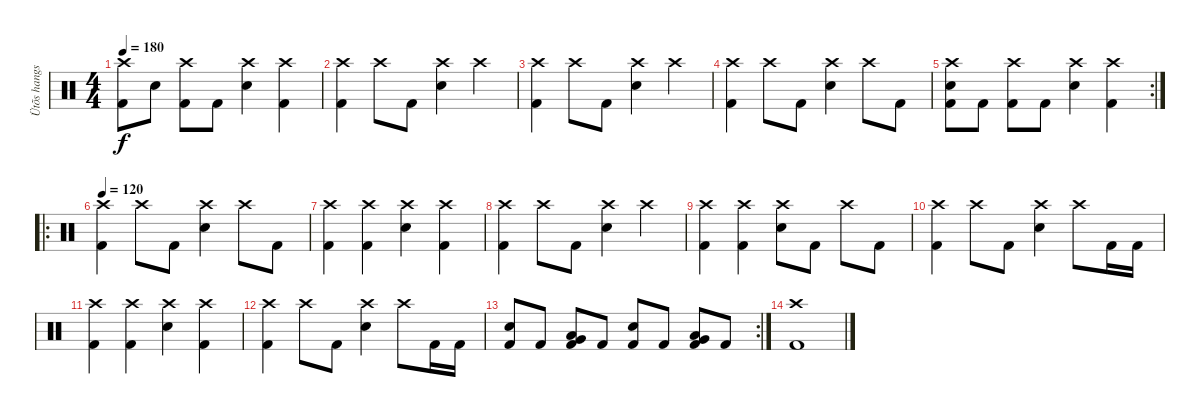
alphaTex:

\track ("Ütõs hangszer" "Ütõs hangs") {instrument percussion}
\staff {score}
\articulation defaults
\ts (4 4)
\tempo 180
\clef neutral
\ks c
("Crash high (hit)" "Kick (hit) 2").8{dy f} "Snare (hit) 2".8 ("Crash high (hit)" "Kick (hit) 2").8 "Kick (hit) 2".8 ("Crash high (hit)" "Snare (hit) 2").4 ("Crash high (hit)" "Kick (hit) 2").4 |
("Crash high (hit)" "Kick (hit) 2").4 "Crash high (hit)".8 "Kick (hit) 2".8 ("Crash high (hit)" "Snare (hit) 2").4 "Crash high (hit)".4 |
("Crash high (hit)" "Kick (hit) 2").4 "Crash high (hit)".8 "Kick (hit) 2".8 ("Crash high (hit)" "Snare (hit) 2").4 "Crash high (hit)".4 |
("Crash high (hit)" "Kick (hit) 2").4 "Crash high (hit)".8 "Kick (hit) 2".8 ("Crash high (hit)" "Snare (hit) 2").4 "Crash high (hit)".8 "Kick (hit) 2".8 |
\rc 2
("Crash high (hit)" "Snare (hit) 2" "Kick (hit) 2").8 "Kick (hit) 2".8 ("Crash high (hit)" "Kick (hit) 2").8 "Kick (hit) 2".8 ("Crash high (hit)" "Snare (hit) 2").4 ("Crash high (hit)" "Kick (hit) 2").4 |
\ro
\tempo 120
("Crash high (hit)" "Kick (hit) 2").4 "Crash high (hit)".8 "Kick (hit) 2".8 ("Crash high (hit)" "Snare (hit) 2").4 "Crash high (hit)".8 "Kick (hit) 2".8 |
("Crash high (hit)" "Kick (hit) 2").4 ("Crash high (hit)" "Kick (hit) 2").4 ("Crash high (hit)" "Snare (hit) 2").4 ("Crash high (hit)" "Kick (hit) 2").4 |
("Crash high (hit)" "Kick (hit) 2").4 "Crash high (hit)".8 "Kick (hit) 2".8 ("Crash high (hit)" "Snare (hit) 2").4 "Crash high (hit)".4 |
("Crash high (hit)" "Kick (hit) 2").4 ("Crash high (hit)" "Kick (hit) 2").4 ("Crash high (hit)" "Snare (hit) 2").8 "Kick (hit) 2".8 "Crash high (hit)".8 "Kick (hit) 2".8 |
("Crash high (hit)" "Kick (hit) 2").4 "Crash high (hit)".8 "Kick (hit) 2".8 ("Crash high (hit)" "Snare (hit) 2").4 "Crash high (hit)".8 "Kick (hit) 2".16 "Kick (hit) 2".16 |
("Crash high (hit)" "Kick (hit) 2").4 ("Crash high (hit)" "Kick (hit) 2").4 ("Crash high (hit)" "Snare (hit) 2").4 ("Crash high (hit)" "Kick (hit) 2").4 |
("Crash high (hit)" "Kick (hit) 2").4 "Crash high (hit)".8 "Kick (hit) 2".8 ("Crash high (hit)" "Snare (hit) 2").4 "Crash high (hit)".8 "Kick (hit) 2".16 "Kick (hit) 2".16 |
\rc 2
("Snare (hit) 2" "Kick (hit) 2").8 "Kick (hit) 2".8 ("Low Tom (hit)" "Very Low Tom (hit)" "Kick (hit) 2").8 "Kick (hit) 2".8 ("Snare (hit) 2" "Kick (hit) 2").8 "Kick (hit) 2".8 ("Low Tom (hit)" "Very Low Tom (hit)" "Kick (hit) 2").8 "Kick (hit) 2".8 |
("Crash high (hit)" "Kick (hit) 2").1
